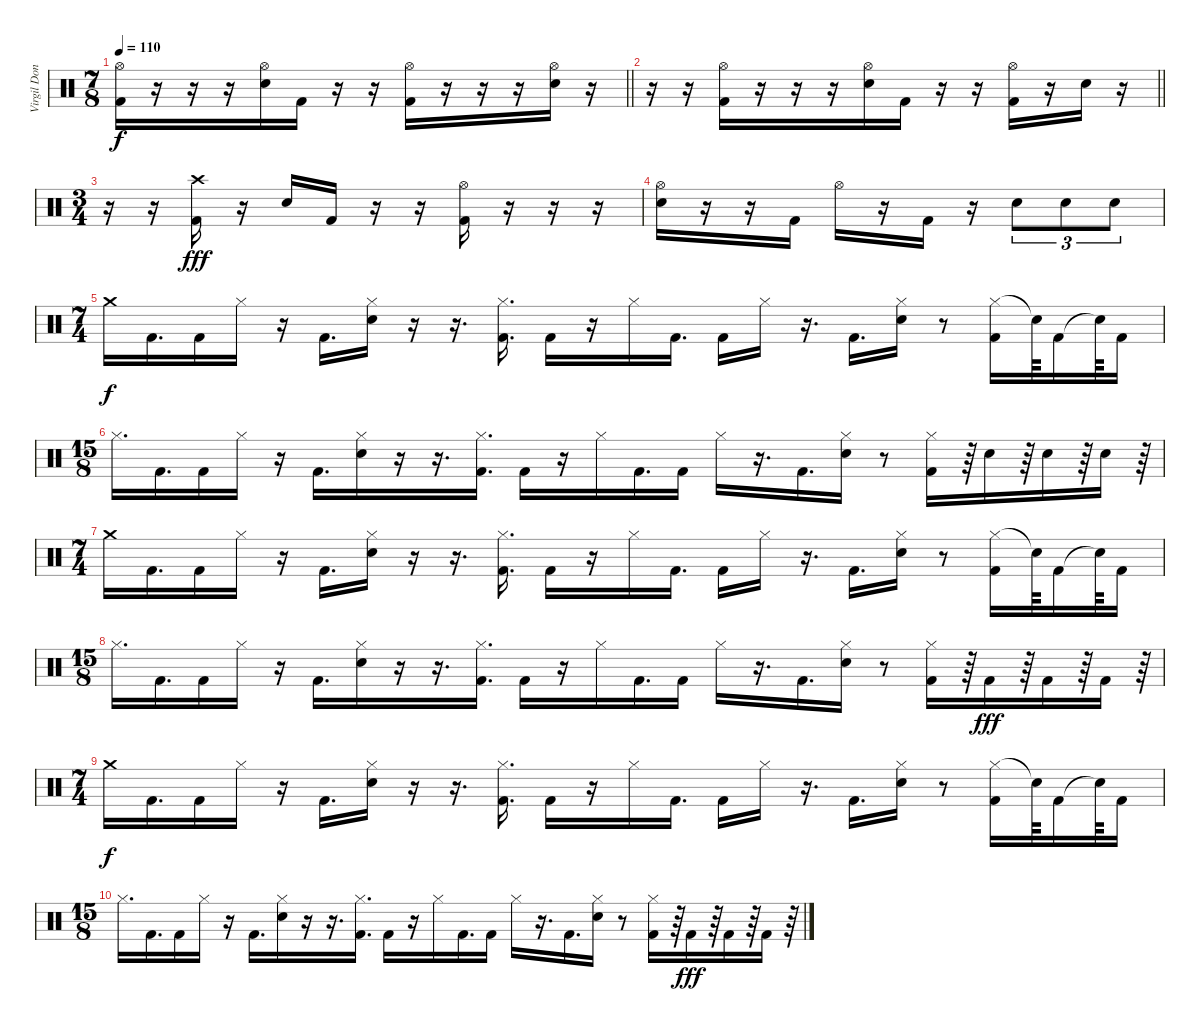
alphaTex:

\track ("Virgil Donati" "Virgil Don") {instrument percussion}
\staff {score}
\articulation defaults
\ts (7 8)
\tempo 110
\clef neutral
\barLineRight lightlight
\ks c
("Hi-Hat (open)" "Kick (hit) 2").16{dy f} r.16 r.16 r.16 ("Hi-Hat (open)" "Electric Snare (hit)").16 "Kick (hit) 2".16 r.16 r.16 ("Hi-Hat (open)" "Kick (hit) 2").16 r.16 r.16 r.16 ("Hi-Hat (open)" "Electric Snare (hit)").16 r.16 |
\barLineRight lightlight
r.16 r.16 ("Hi-Hat (open)" "Kick (hit) 2").16 r.16 r.16 r.16 ("Hi-Hat (open)" "Electric Snare (hit)").16 "Kick (hit) 2".16 r.16 r.16 ("Hi-Hat (open)" "Kick (hit) 2").16 r.16 "Electric Snare (hit)".16 r.16 |
\ts (3 4)
r.16 r.16 ("Crash high (hit)" "Kick (hit) 2").16{dy fff} r.16 "Electric Snare (hit)".16 "Kick (hit) 2".16 r.16 r.16 ("Hi-Hat (open)" "Kick (hit) 2").16 r.16 r.16 r.16 |
("Hi-Hat (open)" "Electric Snare (hit)").16 r.16 r.16 "Kick (hit) 2".16 "Hi-Hat (open)".16 r.16 "Kick (hit) 2".16 r.16 "Electric Snare (hit)".8{tu (3 2)} "Electric Snare (hit)".8{tu (3 2)} "Electric Snare (hit)".8{tu (3 2)} |
\ts (7 4)
"Crash medium (hit)".16{dy f} "Kick (hit) 2".16{d} "Kick (hit) 2".16 "Hi-Hat (closed)".16 r.16 "Kick (hit) 2".16{d} ("Hi-Hat (closed)" "Electric Snare (hit)").16 r.16 r.16{d} ("Hi-Hat (closed)" "Kick (hit) 2").16{d} "Kick (hit) 2".16 r.16 "Hi-Hat (closed)".16 "Kick (hit) 2".16{d} "Kick (hit) 2".16 "Hi-Hat (closed)".16 r.16{d} "Kick (hit) 2".16{d} ("Hi-Hat (closed)" "Electric Snare (hit)").16 r.8 ("Hi-Hat (closed)" "Kick (hit) 2").16 "Snare (hit)"{t}.64 "Kick (hit) 2".16 "Snare (hit)"{t}.64 "Kick (hit) 2".16 |
\ts (15 8)
"Hi-Hat (closed)".16{d} "Kick (hit) 2".16{d} "Kick (hit) 2".16 "Hi-Hat (closed)".16 r.16 "Kick (hit) 2".16{d} ("Hi-Hat (closed)" "Electric Snare (hit)").16 r.16 r.16{d} ("Hi-Hat (closed)" "Kick (hit) 2").16{d} "Kick (hit) 2".16 r.16 "Hi-Hat (closed)".16 "Kick (hit) 2".16{d} "Kick (hit) 2".16 "Hi-Hat (closed)".16 r.16{d} "Kick (hit) 2".16{d} ("Hi-Hat (closed)" "Electric Snare (hit)").16 r.8 ("Hi-Hat (closed)" "Kick (hit) 2").16 r.64 "Electric Snare (hit)".16 r.64 "Electric Snare (hit)".16 r.64 "Electric Snare (hit)".16 r.64 |
\ts (7 4)
"Crash medium (hit)".16 "Kick (hit) 2".16{d} "Kick (hit) 2".16 "Hi-Hat (closed)".16 r.16 "Kick (hit) 2".16{d} ("Hi-Hat (closed)" "Electric Snare (hit)").16 r.16 r.16{d} ("Hi-Hat (closed)" "Kick (hit) 2").16{d} "Kick (hit) 2".16 r.16 "Hi-Hat (closed)".16 "Kick (hit) 2".16{d} "Kick (hit) 2".16 "Hi-Hat (closed)".16 r.16{d} "Kick (hit) 2".16{d} ("Hi-Hat (closed)" "Electric Snare (hit)").16 r.8 ("Hi-Hat (closed)" "Kick (hit) 2").16 "Snare (hit)"{t}.64 "Kick (hit) 2".16 "Snare (hit)"{t}.64 "Kick (hit) 2".16 |
\ts (15 8)
"Hi-Hat (closed)".16{d} "Kick (hit) 2".16{d} "Kick (hit) 2".16 "Hi-Hat (closed)".16 r.16 "Kick (hit) 2".16{d} ("Hi-Hat (closed)" "Electric Snare (hit)").16 r.16 r.16{d} ("Hi-Hat (closed)" "Kick (hit) 2").16{d} "Kick (hit) 2".16 r.16 "Hi-Hat (closed)".16 "Kick (hit) 2".16{d} "Kick (hit) 2".16 "Hi-Hat (closed)".16 r.16{d} "Kick (hit) 2".16{d} ("Hi-Hat (closed)" "Electric Snare (hit)").16 r.8 ("Hi-Hat (closed)" "Kick (hit) 2").16 r.64 "Kick (hit) 2".16{dy fff} r.64 "Kick (hit) 2".16 r.64 "Kick (hit) 2".16 r.64 |
\ts (7 4)
"Crash medium (hit)".16{dy f} "Kick (hit) 2".16{d} "Kick (hit) 2".16 "Hi-Hat (closed)".16 r.16 "Kick (hit) 2".16{d} ("Hi-Hat (closed)" "Electric Snare (hit)").16 r.16 r.16{d} ("Hi-Hat (closed)" "Kick (hit) 2").16{d} "Kick (hit) 2".16 r.16 "Hi-Hat (closed)".16 "Kick (hit) 2".16{d} "Kick (hit) 2".16 "Hi-Hat (closed)".16 r.16{d} "Kick (hit) 2".16{d} ("Hi-Hat (closed)" "Electric Snare (hit)").16 r.8 ("Hi-Hat (closed)" "Kick (hit) 2").16 "Snare (hit)"{t}.64 "Kick (hit) 2".16 "Snare (hit)"{t}.64 "Kick (hit) 2".16 |
\ts (15 8)
"Hi-Hat (closed)".16{d} "Kick (hit) 2".16{d} "Kick (hit) 2".16 "Hi-Hat (closed)".16 r.16 "Kick (hit) 2".16{d} ("Hi-Hat (closed)" "Electric Snare (hit)").16 r.16 r.16{d} ("Hi-Hat (closed)" "Kick (hit) 2").16{d} "Kick (hit) 2".16 r.16 "Hi-Hat (closed)".16 "Kick (hit) 2".16{d} "Kick (hit) 2".16 "Hi-Hat (closed)".16 r.16{d} "Kick (hit) 2".16{d} ("Hi-Hat (closed)" "Electric Snare (hit)").16 r.8 ("Hi-Hat (closed)" "Kick (hit) 2").16 r.64 "Kick (hit) 2".16{dy fff} r.64 "Kick (hit) 2".16 r.64 "Kick (hit) 2".16 r.64
